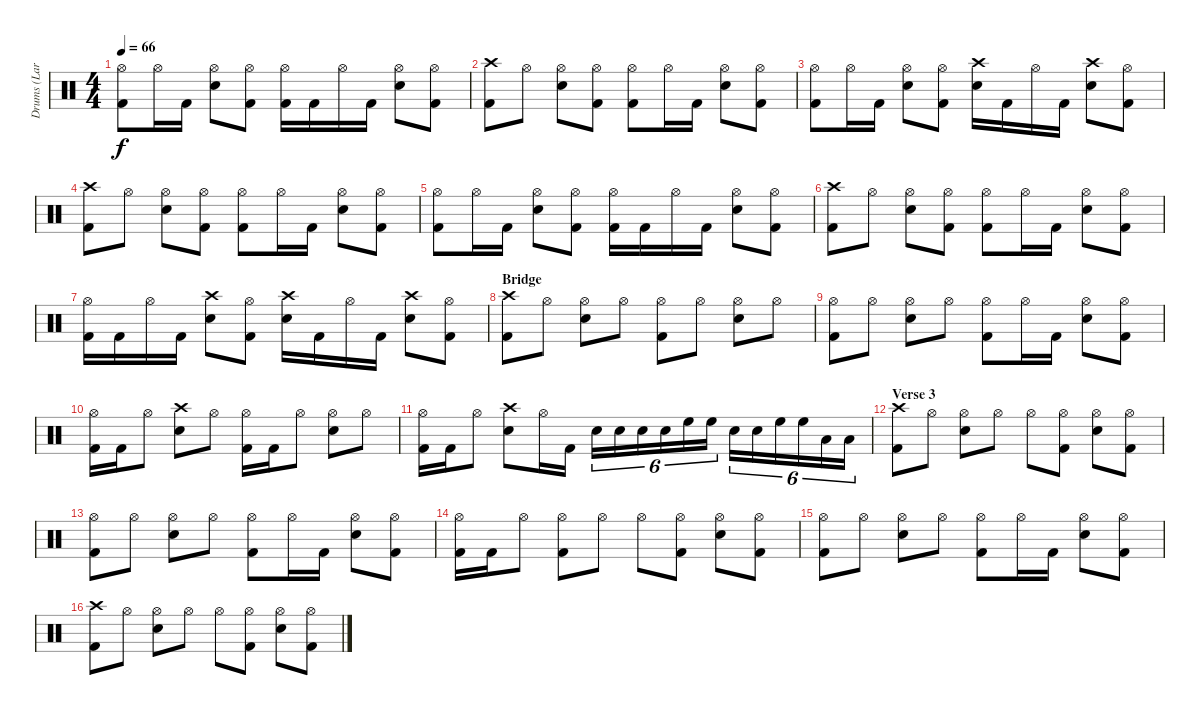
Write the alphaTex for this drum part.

\track ("Drums (Lars)" "Drums (Lar") {instrument percussion}
\staff {score}
\articulation defaults
\ts (4 4)
\tempo 66
\clef neutral
\ks c
("Hi-Hat (open)" "Kick (hit) 2").8{dy f} "Hi-Hat (open)".16 "Kick (hit) 2".16 ("Hi-Hat (open)" "Snare (hit) 2").8 ("Hi-Hat (open)" "Kick (hit) 2").8 ("Hi-Hat (open)" "Kick (hit) 2").16 "Kick (hit) 2".16 "Hi-Hat (open)".16 "Kick (hit) 2".16 ("Hi-Hat (open)" "Snare (hit) 2").8 ("Hi-Hat (open)" "Kick (hit) 2").8 |
("Crash high (hit)" "Kick (hit) 2").8 "Hi-Hat (open)".8 ("Hi-Hat (open)" "Snare (hit) 2").8 ("Hi-Hat (open)" "Kick (hit) 2").8 ("Hi-Hat (open)" "Kick (hit) 2").8 "Hi-Hat (open)".16 "Kick (hit) 2".16 ("Hi-Hat (open)" "Snare (hit) 2").8 ("Hi-Hat (open)" "Kick (hit) 2").8 |
("Hi-Hat (open)" "Kick (hit) 2").8 "Hi-Hat (open)".16 "Kick (hit) 2".16 ("Hi-Hat (open)" "Snare (hit) 2").8 ("Hi-Hat (open)" "Kick (hit) 2").8 ("Crash high (hit)" "Snare (hit) 2").16 "Kick (hit) 2".16 "Hi-Hat (open)".16 "Kick (hit) 2".16 ("Crash high (hit)" "Snare (hit) 2").8 ("Hi-Hat (open)" "Kick (hit) 2").8 |
("Crash high (hit)" "Kick (hit) 2").8 "Hi-Hat (open)".8 ("Hi-Hat (open)" "Snare (hit) 2").8 ("Hi-Hat (open)" "Kick (hit) 2").8 ("Hi-Hat (open)" "Kick (hit) 2").8 "Hi-Hat (open)".16 "Kick (hit) 2".16 ("Hi-Hat (open)" "Snare (hit) 2").8 ("Hi-Hat (open)" "Kick (hit) 2").8 |
("Hi-Hat (open)" "Kick (hit) 2").8 "Hi-Hat (open)".16 "Kick (hit) 2".16 ("Hi-Hat (open)" "Snare (hit) 2").8 ("Hi-Hat (open)" "Kick (hit) 2").8 ("Hi-Hat (open)" "Kick (hit) 2").16 "Kick (hit) 2".16 "Hi-Hat (open)".16 "Kick (hit) 2".16 ("Hi-Hat (open)" "Snare (hit) 2").8 ("Hi-Hat (open)" "Kick (hit) 2").8 |
("Crash high (hit)" "Kick (hit) 2").8 "Hi-Hat (open)".8 ("Hi-Hat (open)" "Snare (hit) 2").8 ("Hi-Hat (open)" "Kick (hit) 2").8 ("Hi-Hat (open)" "Kick (hit) 2").8 "Hi-Hat (open)".16 "Kick (hit) 2".16 ("Hi-Hat (open)" "Snare (hit) 2").8 ("Hi-Hat (open)" "Kick (hit) 2").8 |
("Hi-Hat (open)" "Kick (hit) 2").16 "Kick (hit) 2".16 "Hi-Hat (open)".16 "Kick (hit) 2".16 ("Crash high (hit)" "Snare (hit) 2").8 ("Hi-Hat (open)" "Kick (hit) 2").8 ("Crash high (hit)" "Snare (hit) 2").16 "Kick (hit) 2".16 "Hi-Hat (open)".16 "Kick (hit) 2".16 ("Crash high (hit)" "Snare (hit) 2").8 ("Hi-Hat (open)" "Kick (hit) 2").8 |
\section ("" "Bridge")
("Crash high (hit)" "Kick (hit) 2").8 "Hi-Hat (open)".8 ("Hi-Hat (open)" "Snare (hit) 2").8 "Hi-Hat (open)".8 ("Hi-Hat (open)" "Kick (hit) 2").8 "Hi-Hat (open)".8 ("Hi-Hat (open)" "Snare (hit) 2").8 "Hi-Hat (open)".8 |
("Hi-Hat (open)" "Kick (hit) 2").8 "Hi-Hat (open)".8 ("Hi-Hat (open)" "Snare (hit) 2").8 "Hi-Hat (open)".8 ("Hi-Hat (open)" "Kick (hit) 2").8 "Hi-Hat (open)".16 "Kick (hit) 2".16 ("Hi-Hat (open)" "Snare (hit) 2").8 ("Hi-Hat (open)" "Kick (hit) 2").8 |
("Hi-Hat (open)" "Kick (hit) 2").16 "Kick (hit) 2".16 "Hi-Hat (open)".8 ("Crash high (hit)" "Snare (hit) 2").8 "Hi-Hat (open)".8 ("Hi-Hat (open)" "Kick (hit) 2").16 "Kick (hit) 2".16 "Hi-Hat (open)".8 ("Hi-Hat (open)" "Snare (hit) 2").8 "Hi-Hat (open)".8 |
("Hi-Hat (open)" "Kick (hit) 2").16 "Kick (hit) 2".16 "Hi-Hat (open)".8 ("Crash high (hit)" "Snare (hit) 2").8 "Hi-Hat (open)".16 "Kick (hit) 2".16 "Snare (hit) 2".16{tu (6 4)} "Snare (hit) 2".16{tu (6 4)} "Snare (hit) 2".16{tu (6 4)} "Snare (hit) 2".16{tu (6 4)} "High Floor Tom (hit)".16{tu (6 4)} "High Floor Tom (hit)".16{tu (6 4)} "Snare (hit) 2".16{tu (6 4)} "Snare (hit) 2".16{tu (6 4)} "High Floor Tom (hit)".16{tu (6 4)} "High Floor Tom (hit)".16{tu (6 4)} "Low Tom (hit)".16{tu (6 4)} "Low Tom (hit)".16{tu (6 4)} |
\section ("" "Verse 3")
("Crash high (hit)" "Kick (hit) 2").8 "Hi-Hat (open)".8 ("Hi-Hat (open)" "Snare (hit) 2").8 "Hi-Hat (open)".8 "Hi-Hat (open)".8 ("Hi-Hat (open)" "Kick (hit) 2").8 ("Hi-Hat (open)" "Snare (hit) 2").8 ("Hi-Hat (open)" "Kick (hit) 2").8 |
("Hi-Hat (open)" "Kick (hit) 2").8 "Hi-Hat (open)".8 ("Hi-Hat (open)" "Snare (hit) 2").8 "Hi-Hat (open)".8 ("Hi-Hat (open)" "Kick (hit) 2").8 "Hi-Hat (open)".16 "Kick (hit) 2".16 ("Hi-Hat (open)" "Snare (hit) 2").8 ("Hi-Hat (open)" "Kick (hit) 2").8 |
("Hi-Hat (open)" "Kick (hit) 2").16 "Kick (hit) 2".16 "Hi-Hat (open)".8 ("Hi-Hat (open)" "Kick (hit) 2").8 "Hi-Hat (open)".8 "Hi-Hat (open)".8 ("Hi-Hat (open)" "Kick (hit) 2").8 ("Hi-Hat (open)" "Snare (hit) 2").8 ("Hi-Hat (open)" "Kick (hit) 2").8 |
("Hi-Hat (open)" "Kick (hit) 2").8 "Hi-Hat (open)".8 ("Hi-Hat (open)" "Snare (hit) 2").8 "Hi-Hat (open)".8 ("Hi-Hat (open)" "Kick (hit) 2").8 "Hi-Hat (open)".16 "Kick (hit) 2".16 ("Hi-Hat (open)" "Snare (hit) 2").8 ("Hi-Hat (open)" "Kick (hit) 2").8 |
("Crash high (hit)" "Kick (hit) 2").8 "Hi-Hat (open)".8 ("Hi-Hat (open)" "Snare (hit) 2").8 "Hi-Hat (open)".8 "Hi-Hat (open)".8 ("Hi-Hat (open)" "Kick (hit) 2").8 ("Hi-Hat (open)" "Snare (hit) 2").8 ("Hi-Hat (open)" "Kick (hit) 2").8
